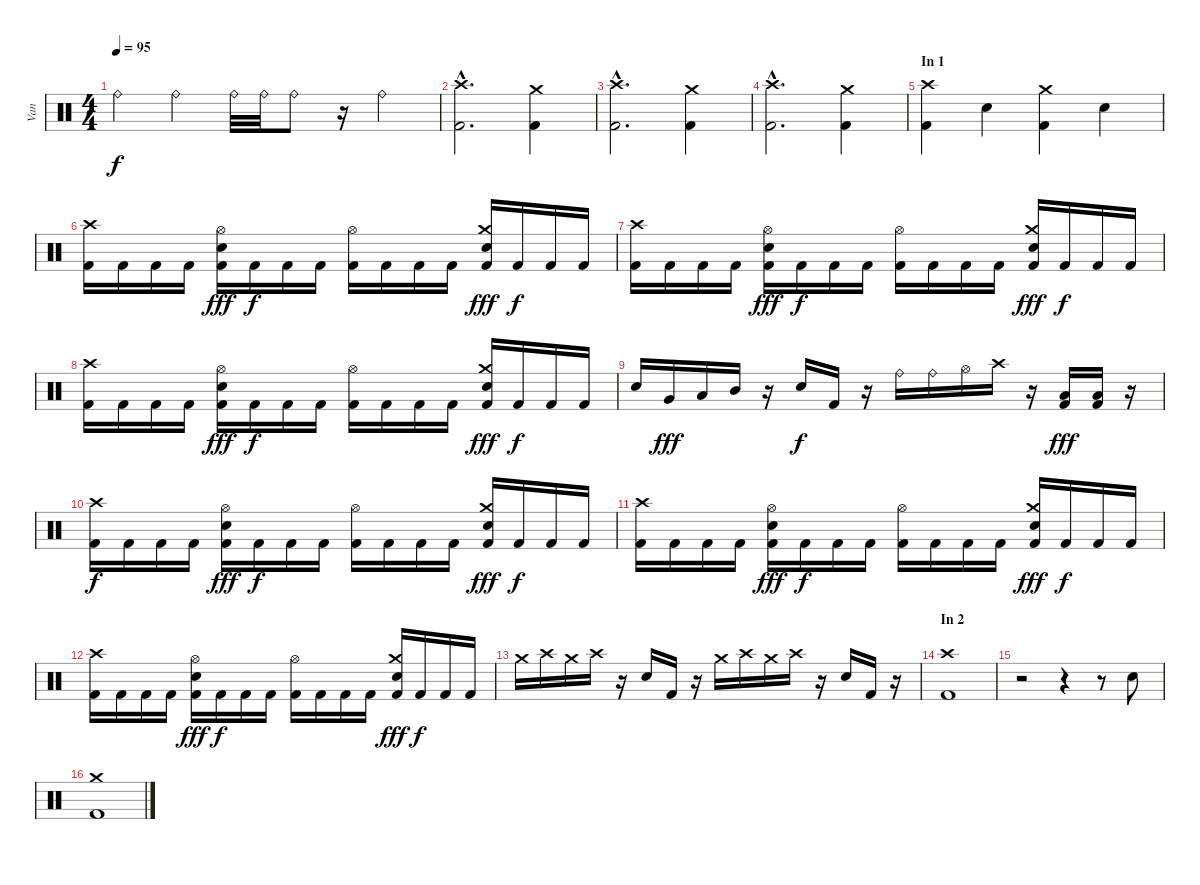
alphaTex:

\track ("Van" "Van") {instrument percussion}
\staff {score}
\articulation defaults
\ts (4 4)
\tempo 95
\clef neutral
\ks c "Ride (bell)".4{dy f} "Ride (bell)".4 "Ride (bell)".32 "Ride (bell)".32 "Ride (bell)".8
r.16 "Ride (bell)".4 |
("Crash high (hit)"{hac} "Kick (hit) 2"{hac}).2{d} ("Crash medium (hit)" "Kick (hit) 2").4 |
("Crash high (hit)"{hac} "Kick (hit) 2"{hac}).2{d} ("Crash medium (hit)" "Kick (hit) 2").4 |
("Crash high (hit)"{hac} "Kick (hit) 2"{hac}).2{d} ("Crash medium (hit)" "Kick (hit) 2").4 |
\section ("" "In 1")
("Crash high (hit)" "Kick (hit) 2").4 "Electric Snare (hit)".4 ("Crash medium (hit)" "Kick (hit) 2").4 "Electric Snare (hit)".4 |
("Crash high (hit)" "Kick (hit) 2").16 "Kick (hit) 2".16 "Kick (hit) 2".16 "Kick (hit) 2".16 ("Hi-Hat (open)" "Electric Snare (hit)" "Kick (hit) 2").16{dy fff} "Kick (hit) 2".16{dy f} "Kick (hit) 2".16 "Kick (hit) 2".16 ("Hi-Hat (open)" "Kick (hit) 2").16 "Kick (hit) 2".16 "Kick (hit) 2".16 "Kick (hit) 2".16 ("Crash medium (hit)" "Electric Snare (hit)" "Kick (hit) 2").16{dy fff} "Kick (hit) 2".16{dy f} "Kick (hit) 2".16 "Kick (hit) 2".16 |
("Crash high (hit)" "Kick (hit) 2").16 "Kick (hit) 2".16 "Kick (hit) 2".16 "Kick (hit) 2".16 ("Hi-Hat (open)" "Electric Snare (hit)" "Kick (hit) 2").16{dy fff} "Kick (hit) 2".16{dy f} "Kick (hit) 2".16 "Kick (hit) 2".16 ("Hi-Hat (open)" "Kick (hit) 2").16 "Kick (hit) 2".16 "Kick (hit) 2".16 "Kick (hit) 2".16 ("Crash medium (hit)" "Electric Snare (hit)" "Kick (hit) 2").16{dy fff} "Kick (hit) 2".16{dy f} "Kick (hit) 2".16 "Kick (hit) 2".16 |
("Crash high (hit)" "Kick (hit) 2").16 "Kick (hit) 2".16 "Kick (hit) 2".16 "Kick (hit) 2".16 ("Hi-Hat (open)" "Electric Snare (hit)" "Kick (hit) 2").16{dy fff} "Kick (hit) 2".16{dy f} "Kick (hit) 2".16 "Kick (hit) 2".16 ("Hi-Hat (open)" "Kick (hit) 2").16 "Kick (hit) 2".16 "Kick (hit) 2".16 "Kick (hit) 2".16 ("Crash medium (hit)" "Electric Snare (hit)" "Kick (hit) 2").16{dy fff} "Kick (hit) 2".16{dy f} "Kick (hit) 2".16 "Kick (hit) 2".16 |
"Electric Snare (hit)".16 "Very Low Tom (hit)".16{dy fff} "Low Tom (hit)".16 "Mid Tom (hit)".16 r.16 "Electric Snare (hit)".16{dy f} "Kick (hit) 2".16 r.16 "Ride (bell)".16 "Ride (bell)".16 "Hi-Hat (open)".16 "Crash high (hit)".16 r.16 ("Low Floor Tom (hit)" "Kick (hit) 2").16{dy fff} ("Low Floor Tom (hit)" "Kick (hit) 2").16 r.16 |
("Crash high (hit)" "Kick (hit) 2").16{dy f} "Kick (hit) 2".16 "Kick (hit) 2".16 "Kick (hit) 2".16 ("Hi-Hat (open)" "Electric Snare (hit)" "Kick (hit) 2").16{dy fff} "Kick (hit) 2".16{dy f} "Kick (hit) 2".16 "Kick (hit) 2".16 ("Hi-Hat (open)" "Kick (hit) 2").16 "Kick (hit) 2".16 "Kick (hit) 2".16 "Kick (hit) 2".16 ("Crash medium (hit)" "Electric Snare (hit)" "Kick (hit) 2").16{dy fff} "Kick (hit) 2".16{dy f} "Kick (hit) 2".16 "Kick (hit) 2".16 |
("Crash high (hit)" "Kick (hit) 2").16 "Kick (hit) 2".16 "Kick (hit) 2".16 "Kick (hit) 2".16 ("Hi-Hat (open)" "Electric Snare (hit)" "Kick (hit) 2").16{dy fff} "Kick (hit) 2".16{dy f} "Kick (hit) 2".16 "Kick (hit) 2".16 ("Hi-Hat (open)" "Kick (hit) 2").16 "Kick (hit) 2".16 "Kick (hit) 2".16 "Kick (hit) 2".16 ("Crash medium (hit)" "Electric Snare (hit)" "Kick (hit) 2").16{dy fff} "Kick (hit) 2".16{dy f} "Kick (hit) 2".16 "Kick (hit) 2".16 |
("Crash high (hit)" "Kick (hit) 2").16 "Kick (hit) 2".16 "Kick (hit) 2".16 "Kick (hit) 2".16 ("Hi-Hat (open)" "Electric Snare (hit)" "Kick (hit) 2").16{dy fff} "Kick (hit) 2".16{dy f} "Kick (hit) 2".16 "Kick (hit) 2".16 ("Hi-Hat (open)" "Kick (hit) 2").16 "Kick (hit) 2".16 "Kick (hit) 2".16 "Kick (hit) 2".16 ("Crash medium (hit)" "Electric Snare (hit)" "Kick (hit) 2").16{dy fff} "Kick (hit) 2".16{dy f} "Kick (hit) 2".16 "Kick (hit) 2".16 |
"Crash medium (hit)".16 "Crash high (hit)".16 "Crash medium (hit)".16 "Crash high (hit)".16 r.16 "Electric Snare (hit)".16 "Kick (hit) 2".16 r.16 "Crash medium (hit)".16 "Crash high (hit)".16 "Crash medium (hit)".16 "Crash high (hit)".16 r.16 "Electric Snare (hit)".16 "Kick (hit) 2".16 r.16 |
\section ("" "In 2")
("Crash high (hit)" "Kick (hit) 2").1 |
r.2 r.4 r.8 "Electric Snare (hit)".8 |
("Crash medium (hit)" "Kick (hit) 2").1
